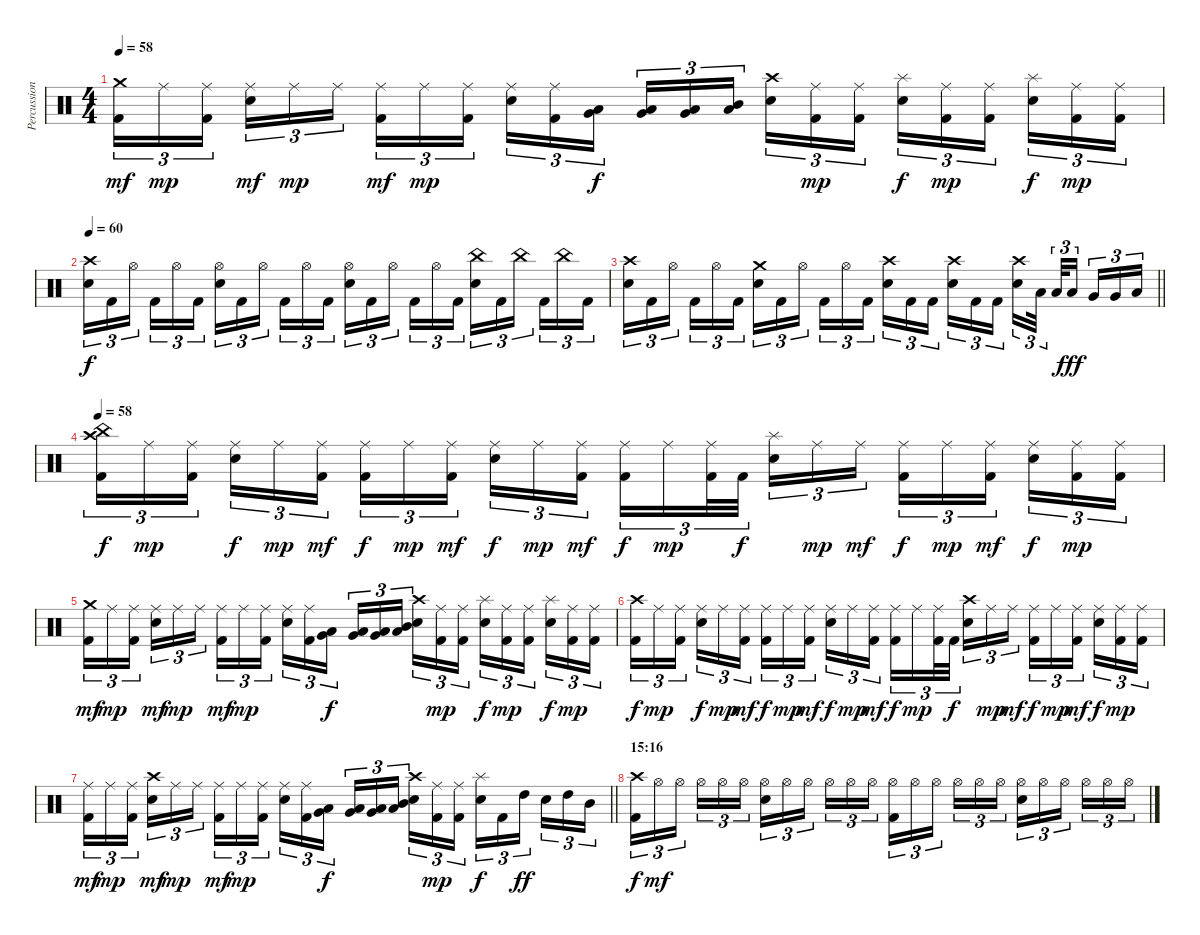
\track ("Percussions" "Percussion") {instrument percussion}
\staff {score}
\articulation defaults
\ts (4 4)
\tempo 58
\clef neutral
\ks c
("Crash medium (hit)" "Kick (hit) 2").16{tu (3 2) dy mf} "Ride (middle)".16{tu (3 2) dy mp} ("Ride (middle)" "Kick (hit) 2").16{tu (3 2) beam splitsecondary} ("Ride (middle)" "Snare (hit) 2").16{tu (3 2) dy mf} "Ride (middle)".16{tu (3 2) dy mp} "Ride (middle)".16{tu (3 2)} ("Ride (middle)" "Kick (hit) 2").16{tu (3 2) dy mf} "Ride (middle)".16{tu (3 2) dy mp} ("Ride (middle)" "Kick (hit) 2").16{tu (3 2) beam splitsecondary} ("Ride (middle)" "Snare (hit) 2").16{tu (3 2)} ("Ride (middle)" "Kick (hit) 2").16{tu (3 2)} ("Low Floor Tom (hit)" "Very Low Tom (hit)").16{tu (3 2) dy f} ("Low Tom (hit)" "Very Low Tom (hit)").16{tu (3 2)} ("Very Low Tom (hit)" "Low Tom (hit)").16{tu (3 2)} ("Mid Tom (hit)" "Low Tom (hit)").16{tu (3 2) beam splitsecondary} ("Crash high (hit)" "Snare (hit) 2").16{tu (3 2)} ("Ride (middle)" "Kick (hit) 2").16{tu (3 2) dy mp} ("Ride (middle)" "Kick (hit) 2").16{tu (3 2)} ("Splash (hit)" "Snare (hit) 2").16{tu (3 2) dy f} ("Ride (middle)" "Kick (hit) 2").16{tu (3 2) dy mp} ("Ride (middle)" "Kick (hit) 2").16{tu (3 2) beam splitsecondary} ("Splash (hit)" "Snare (hit) 2").16{tu (3 2) dy f} ("Ride (middle)" "Kick (hit) 2").16{tu (3 2) dy mp} ("Ride (middle)" "Kick (hit) 2").16{tu (3 2)} |
\tempo 60
("Crash high (hit)" "Snare (hit) 2").16{tu (3 2) dy f} "Kick (hit) 2".16{tu (3 2)} "Hi-Hat (open)".16{tu (3 2) beam splitsecondary} "Kick (hit) 2".16{tu (3 2)} "Hi-Hat (open)".16{tu (3 2)} "Kick (hit) 2".16{tu (3 2)} ("Hi-Hat (open)" "Snare (hit) 2").16{tu (3 2)} "Kick (hit) 2".16{tu (3 2)} "Hi-Hat (open)".16{tu (3 2) beam splitsecondary} "Kick (hit) 2".16{tu (3 2)} "Hi-Hat (open)".16{tu (3 2)} "Kick (hit) 2".16{tu (3 2)} ("Hi-Hat (open)" "Snare (hit) 2").16{tu (3 2)} "Kick (hit) 2".16{tu (3 2)} "Hi-Hat (open)".16{tu (3 2) beam splitsecondary} "Kick (hit) 2".16{tu (3 2)} "Hi-Hat (open)".16{tu (3 2)} "Kick (hit) 2".16{tu (3 2)} ("China (hit)" "Snare (hit) 2").16{tu (3 2)} "Kick (hit) 2".16{tu (3 2)} "China (hit)".16{tu (3 2) beam splitsecondary} "Kick (hit) 2".16{tu (3 2)} "China (hit)".16{tu (3 2)} "Kick (hit) 2".16{tu (3 2)} |
\barLineRight lightlight
("Crash high (hit)" "Snare (hit) 2").16{tu (3 2)} "Kick (hit) 2".16{tu (3 2)} "Hi-Hat (open)".16{tu (3 2) beam splitsecondary} "Kick (hit) 2".16{tu (3 2)} "Hi-Hat (open)".16{tu (3 2)} "Kick (hit) 2".16{tu (3 2)} ("Crash medium (hit)" "Snare (hit) 2").16{tu (3 2)} "Kick (hit) 2".16{tu (3 2)} "Hi-Hat (open)".16{tu (3 2) beam splitsecondary} "Kick (hit) 2".16{tu (3 2)} "Hi-Hat (open)".16{tu (3 2)} "Kick (hit) 2".16{tu (3 2)} ("Crash high (hit)" "Snare (hit) 2").16{tu (3 2)} "Kick (hit) 2".16{tu (3 2)} "Kick (hit) 2".16{tu (3 2) beam splitsecondary} ("Crash high (hit)" "Snare (hit) 2").16{tu (3 2)} "Kick (hit) 2".16{tu (3 2)} "Kick (hit) 2".16{tu (3 2)} ("Crash high (hit)" "Snare (hit) 2").16{tu (3 2)} "Low Tom (hit)".32{tu (3 2) beam splitsecondary} "Low Tom (hit)".32{tu (3 2)} "Low Tom (hit)".16{tu (3 2) dy fff beam splitsecondary} "Very Low Tom (hit)".16{tu (3 2)} "Very Low Tom (hit)".16{tu (3 2)} "Low Floor Tom (hit)".16{tu (3 2)} |
\tempo 58
("China (hit)" "Crash high (hit)" "Kick (hit) 2").16{tu (3 2) dy f} "Ride (middle)".16{tu (3 2) dy mp} ("Ride (middle)" "Kick (hit) 2").16{tu (3 2) beam splitsecondary} ("Ride (middle)" "Snare (hit) 2").16{tu (3 2) dy f} "Ride (middle)".16{tu (3 2) dy mp} ("Ride (middle)" "Kick (hit) 2").16{tu (3 2) dy mf} ("Ride (middle)" "Kick (hit) 2").16{tu (3 2) dy f} "Ride (middle)".16{tu (3 2) dy mp} ("Ride (middle)" "Kick (hit) 2").16{tu (3 2) dy mf beam splitsecondary} ("Ride (middle)" "Snare (hit) 2").16{tu (3 2) dy f} "Ride (middle)".16{tu (3 2) dy mp} ("Ride (middle)" "Kick (hit) 2").16{tu (3 2) dy mf} ("Ride (middle)" "Kick (hit) 2").16{tu (3 2) dy f} "Ride (middle)".16{tu (3 2) dy mp} ("Ride (middle)" "Kick (hit) 2").32{tu (3 2)} "Kick (hit) 2".32{tu (3 2) dy f beam splitsecondary} ("Splash (hit)" "Snare (hit) 2").16{tu (3 2)} "Ride (middle)".16{tu (3 2) dy mp} "Ride (middle)".16{tu (3 2) dy mf} ("Ride (middle)" "Kick (hit) 2").16{tu (3 2) dy f} "Ride (middle)".16{tu (3 2) dy mp} ("Ride (middle)" "Kick (hit) 2").16{tu (3 2) dy mf beam splitsecondary} ("Ride (middle)" "Snare (hit) 2").16{tu (3 2) dy f} ("Ride (middle)" "Kick (hit) 2").16{tu (3 2) dy mp} ("Ride (middle)" "Kick (hit) 2").16{tu (3 2)} |
("Crash medium (hit)" "Kick (hit) 2").16{tu (3 2) dy mf} "Ride (middle)".16{tu (3 2) dy mp} ("Ride (middle)" "Kick (hit) 2").16{tu (3 2) beam splitsecondary} ("Ride (middle)" "Snare (hit) 2").16{tu (3 2) dy mf} "Ride (middle)".16{tu (3 2) dy mp} "Ride (middle)".16{tu (3 2)} ("Ride (middle)" "Kick (hit) 2").16{tu (3 2) dy mf} "Ride (middle)".16{tu (3 2) dy mp} ("Ride (middle)" "Kick (hit) 2").16{tu (3 2) beam splitsecondary} ("Ride (middle)" "Snare (hit) 2").16{tu (3 2)} ("Ride (middle)" "Kick (hit) 2").16{tu (3 2)} ("Low Floor Tom (hit)" "Very Low Tom (hit)").16{tu (3 2) dy f} ("Low Tom (hit)" "Very Low Tom (hit)").16{tu (3 2)} ("Very Low Tom (hit)" "Low Tom (hit)").16{tu (3 2)} ("Mid Tom (hit)" "Low Tom (hit)").16{tu (3 2) beam splitsecondary} ("Crash high (hit)" "Snare (hit) 2").16{tu (3 2)} ("Ride (middle)" "Kick (hit) 2").16{tu (3 2) dy mp} ("Ride (middle)" "Kick (hit) 2").16{tu (3 2)} ("Splash (hit)" "Snare (hit) 2").16{tu (3 2) dy f} ("Ride (middle)" "Kick (hit) 2").16{tu (3 2) dy mp} ("Ride (middle)" "Kick (hit) 2").16{tu (3 2) beam splitsecondary} ("Splash (hit)" "Snare (hit) 2").16{tu (3 2) dy f} ("Ride (middle)" "Kick (hit) 2").16{tu (3 2) dy mp} ("Ride (middle)" "Kick (hit) 2").16{tu (3 2)} |
("Crash high (hit)" "Kick (hit) 2").16{tu (3 2) dy f} "Ride (middle)".16{tu (3 2) dy mp} ("Ride (middle)" "Kick (hit) 2").16{tu (3 2) beam splitsecondary} ("Ride (middle)" "Snare (hit) 2").16{tu (3 2) dy f} "Ride (middle)".16{tu (3 2) dy mp} ("Ride (middle)" "Kick (hit) 2").16{tu (3 2) dy mf} ("Ride (middle)" "Kick (hit) 2").16{tu (3 2) dy f} "Ride (middle)".16{tu (3 2) dy mp} ("Ride (middle)" "Kick (hit) 2").16{tu (3 2) dy mf beam splitsecondary} ("Ride (middle)" "Snare (hit) 2").16{tu (3 2) dy f} "Ride (middle)".16{tu (3 2) dy mp} ("Ride (middle)" "Kick (hit) 2").16{tu (3 2) dy mf} ("Ride (middle)" "Kick (hit) 2").16{tu (3 2) dy f} "Ride (middle)".16{tu (3 2) dy mp} ("Ride (middle)" "Kick (hit) 2").32{tu (3 2)} "Kick (hit) 2".32{tu (3 2) dy f beam splitsecondary} ("Crash high (hit)" "Snare (hit) 2").16{tu (3 2)} "Ride (middle)".16{tu (3 2) dy mp} "Ride (middle)".16{tu (3 2) dy mf} ("Ride (middle)" "Kick (hit) 2").16{tu (3 2) dy f} "Ride (middle)".16{tu (3 2) dy mp} ("Ride (middle)" "Kick (hit) 2").16{tu (3 2) dy mf beam splitsecondary} ("Ride (middle)" "Snare (hit) 2").16{tu (3 2) dy f} ("Ride (middle)" "Kick (hit) 2").16{tu (3 2) dy mp} ("Ride (middle)" "Kick (hit) 2").16{tu (3 2)} |
\barLineRight lightlight
("Ride (middle)" "Kick (hit) 2").16{tu (3 2) dy mf} "Ride (middle)".16{tu (3 2) dy mp} ("Ride (middle)" "Kick (hit) 2").16{tu (3 2) beam splitsecondary} ("Crash high (hit)" "Snare (hit) 2").16{tu (3 2) dy mf} "Ride (middle)".16{tu (3 2) dy mp} "Ride (middle)".16{tu (3 2)} ("Ride (middle)" "Kick (hit) 2").16{tu (3 2) dy mf} "Ride (middle)".16{tu (3 2) dy mp} ("Ride (middle)" "Kick (hit) 2").16{tu (3 2) beam splitsecondary} ("Ride (middle)" "Snare (hit) 2").16{tu (3 2)} ("Ride (middle)" "Kick (hit) 2").16{tu (3 2)} ("Low Floor Tom (hit)" "Very Low Tom (hit)").16{tu (3 2) dy f} ("Low Tom (hit)" "Very Low Tom (hit)").16{tu (3 2)} ("Very Low Tom (hit)" "Low Tom (hit)").16{tu (3 2)} ("Mid Tom (hit)" "Low Tom (hit)").16{tu (3 2) beam splitsecondary} ("Crash high (hit)" "Snare (hit) 2").16{tu (3 2)} ("Ride (middle)" "Kick (hit) 2").16{tu (3 2) dy mp} ("Ride (middle)" "Kick (hit) 2").16{tu (3 2)} ("Splash (hit)" "Snare (hit) 2").16{tu (3 2) dy f} "Kick (hit) 2".16{tu (3 2)} "High Tom (hit)".16{tu (3 2) dy ff beam splitsecondary} "Snare (hit) 2".16{tu (3 2)} "High Tom (hit)".16{tu (3 2)} "Mid Tom (hit)".16{tu (3 2)} |
\section ("" "15:16")
("Crash high (hit)" "Kick (hit) 2").16{tu (3 2) dy f} "Hi-Hat (open)".16{tu (3 2) dy mf} "Hi-Hat (open)".16{tu (3 2) beam splitsecondary} "Hi-Hat (open)".16{tu (3 2)} "Hi-Hat (open)".16{tu (3 2)} "Hi-Hat (open)".16{tu (3 2)} ("Hi-Hat (open)" "Snare (hit) 2").16{tu (3 2)} "Hi-Hat (open)".16{tu (3 2)} "Hi-Hat (open)".16{tu (3 2) beam splitsecondary} "Hi-Hat (open)".16{tu (3 2)} "Hi-Hat (open)".16{tu (3 2)} "Hi-Hat (open)".16{tu (3 2)} ("Hi-Hat (open)" "Kick (hit) 2").16{tu (3 2)} "Hi-Hat (open)".16{tu (3 2)} "Hi-Hat (open)".16{tu (3 2) beam splitsecondary} "Hi-Hat (open)".16{tu (3 2)} "Hi-Hat (open)".16{tu (3 2)} "Hi-Hat (open)".16{tu (3 2)} ("Hi-Hat (open)" "Snare (hit) 2").16{tu (3 2)} "Hi-Hat (open)".16{tu (3 2)} "Hi-Hat (open)".16{tu (3 2) beam splitsecondary} "Hi-Hat (open)".16{tu (3 2)} "Hi-Hat (open)".16{tu (3 2)} "Hi-Hat (open)".16{tu (3 2)}
